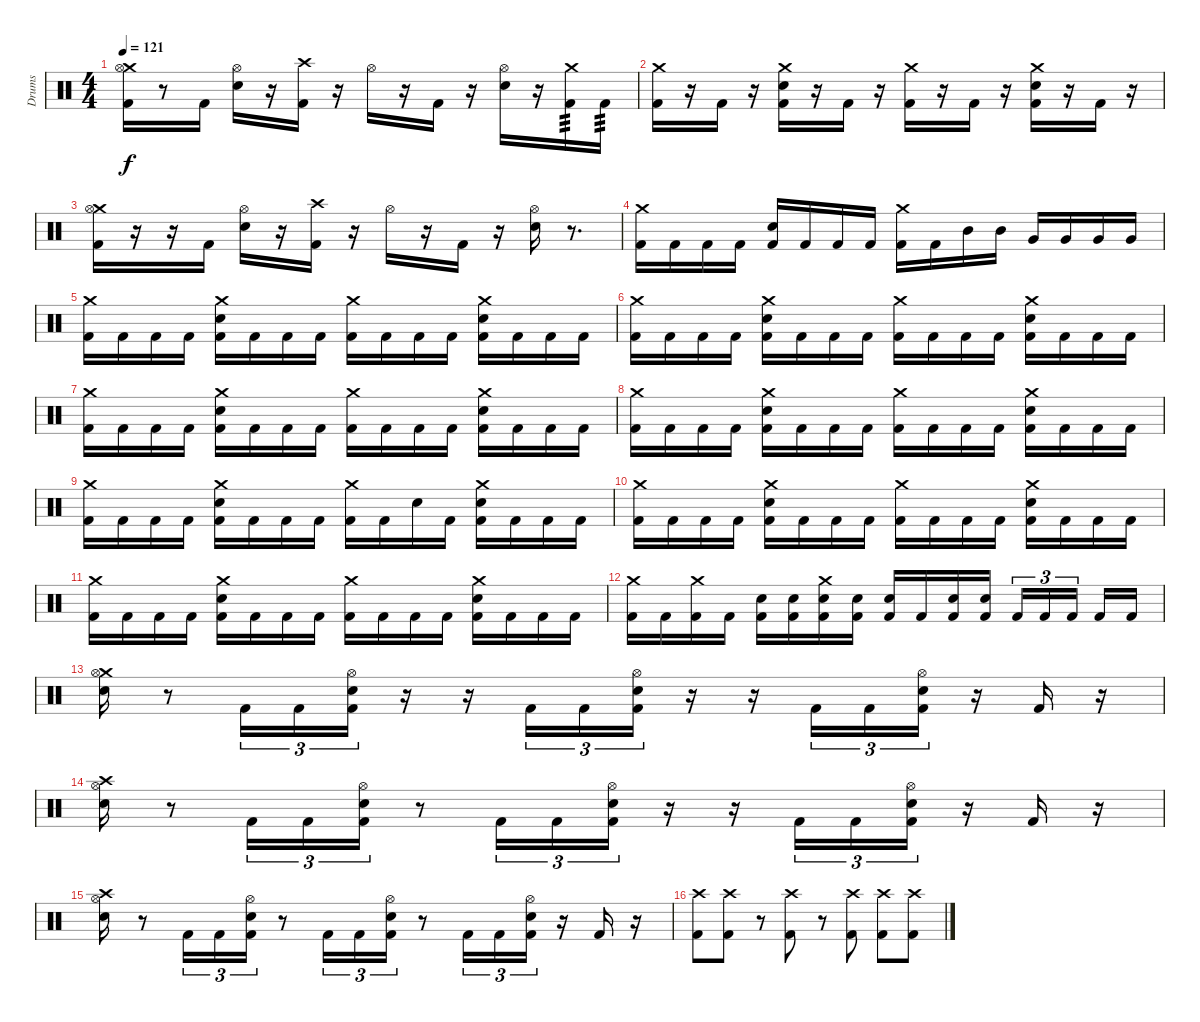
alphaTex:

\track ("Drums" "Drums") {instrument percussion}
\staff {score}
\articulation defaults
\ts (4 4)
\tempo 121
\clef neutral
\ks c
("Crash medium (hit)" "Hi-Hat (open)" "Kick (hit) 2").16{dy f} r.8 "Kick (hit) 2".16 ("Hi-Hat (open)" "Electric Snare (hit)").16 r.16 ("Crash high (hit)" "Kick (hit) 2").16 r.16 "Hi-Hat (open)".16 r.16 "Kick (hit) 2".16 r.16 ("Hi-Hat (open)" "Electric Snare (hit)").16 r.16 ("Crash medium (hit)" "Kick (hit) 2").16{tp 3} "Kick (hit) 2".16{tp 3} |
("Crash medium (hit)" "Kick (hit) 2").16 r.16 "Kick (hit) 2".16 r.16 ("Crash medium (hit)" "Electric Snare (hit)" "Kick (hit) 2").16 r.16 "Kick (hit) 2".16 r.16 ("Crash medium (hit)" "Kick (hit) 2").16 r.16 "Kick (hit) 2".16 r.16 ("Crash medium (hit)" "Electric Snare (hit)" "Kick (hit) 2").16 r.16 "Kick (hit) 2".16 r.16 |
("Crash medium (hit)" "Hi-Hat (open)" "Kick (hit) 2").16 r.16 r.16 "Kick (hit) 2".16 ("Hi-Hat (open)" "Electric Snare (hit)").16 r.16 ("Crash high (hit)" "Kick (hit) 2").16 r.16 "Hi-Hat (open)".16 r.16 "Kick (hit) 2".16 r.16 ("Hi-Hat (open)" "Electric Snare (hit)").16 r.8{d} |
("Crash medium (hit)" "Kick (hit) 2").16 "Kick (hit) 2".16 "Kick (hit) 2".16 "Kick (hit) 2".16 ("Electric Snare (hit)" "Kick (hit) 2").16 "Kick (hit) 2".16 "Kick (hit) 2".16 "Kick (hit) 2".16 ("Crash medium (hit)" "Kick (hit) 2").16 "Kick (hit) 2".16 "Mid Tom (hit)".16 "Mid Tom (hit)".16 "Very Low Tom (hit)".16 "Very Low Tom (hit)".16 "Very Low Tom (hit)".16 "Very Low Tom (hit)".16 |
("Crash medium (hit)" "Kick (hit) 2").16 "Kick (hit) 2".16 "Kick (hit) 2".16 "Kick (hit) 2".16 ("Crash medium (hit)" "Electric Snare (hit)" "Kick (hit) 2").16 "Kick (hit) 2".16 "Kick (hit) 2".16 "Kick (hit) 2".16 ("Crash medium (hit)" "Kick (hit) 2").16 "Kick (hit) 2".16 "Kick (hit) 2".16 "Kick (hit) 2".16 ("Crash medium (hit)" "Electric Snare (hit)" "Kick (hit) 2").16 "Kick (hit) 2".16 "Kick (hit) 2".16 "Kick (hit) 2".16 |
("Crash medium (hit)" "Kick (hit) 2").16 "Kick (hit) 2".16 "Kick (hit) 2".16 "Kick (hit) 2".16 ("Crash medium (hit)" "Electric Snare (hit)" "Kick (hit) 2").16 "Kick (hit) 2".16 "Kick (hit) 2".16 "Kick (hit) 2".16 ("Crash medium (hit)" "Kick (hit) 2").16 "Kick (hit) 2".16 "Kick (hit) 2".16 "Kick (hit) 2".16 ("Crash medium (hit)" "Electric Snare (hit)" "Kick (hit) 2").16 "Kick (hit) 2".16 "Kick (hit) 2".16 "Kick (hit) 2".16 |
("Crash medium (hit)" "Kick (hit) 2").16 "Kick (hit) 2".16 "Kick (hit) 2".16 "Kick (hit) 2".16 ("Crash medium (hit)" "Electric Snare (hit)" "Kick (hit) 2").16 "Kick (hit) 2".16 "Kick (hit) 2".16 "Kick (hit) 2".16 ("Crash medium (hit)" "Kick (hit) 2").16 "Kick (hit) 2".16 "Kick (hit) 2".16 "Kick (hit) 2".16 ("Crash medium (hit)" "Electric Snare (hit)" "Kick (hit) 2").16 "Kick (hit) 2".16 "Kick (hit) 2".16 "Kick (hit) 2".16 |
("Crash medium (hit)" "Kick (hit) 2").16 "Kick (hit) 2".16 "Kick (hit) 2".16 "Kick (hit) 2".16 ("Crash medium (hit)" "Electric Snare (hit)" "Kick (hit) 2").16 "Kick (hit) 2".16 "Kick (hit) 2".16 "Kick (hit) 2".16 ("Crash medium (hit)" "Kick (hit) 2").16 "Kick (hit) 2".16 "Kick (hit) 2".16 "Kick (hit) 2".16 ("Crash medium (hit)" "Electric Snare (hit)" "Kick (hit) 2").16 "Kick (hit) 2".16 "Kick (hit) 2".16 "Kick (hit) 2".16 |
("Crash medium (hit)" "Kick (hit) 2").16 "Kick (hit) 2".16 "Kick (hit) 2".16 "Kick (hit) 2".16 ("Crash medium (hit)" "Electric Snare (hit)" "Kick (hit) 2").16 "Kick (hit) 2".16 "Kick (hit) 2".16 "Kick (hit) 2".16 ("Crash medium (hit)" "Kick (hit) 2").16 "Kick (hit) 2".16 "Snare (hit)".16 "Kick (hit) 2".16 ("Crash medium (hit)" "Electric Snare (hit)" "Kick (hit) 2").16 "Kick (hit) 2".16 "Kick (hit) 2".16 "Kick (hit) 2".16 |
("Crash medium (hit)" "Kick (hit) 2").16 "Kick (hit) 2".16 "Kick (hit) 2".16 "Kick (hit) 2".16 ("Crash medium (hit)" "Electric Snare (hit)" "Kick (hit) 2").16 "Kick (hit) 2".16 "Kick (hit) 2".16 "Kick (hit) 2".16 ("Crash medium (hit)" "Kick (hit) 2").16 "Kick (hit) 2".16 "Kick (hit) 2".16 "Kick (hit) 2".16 ("Crash medium (hit)" "Electric Snare (hit)" "Kick (hit) 2").16 "Kick (hit) 2".16 "Kick (hit) 2".16 "Kick (hit) 2".16 |
("Crash medium (hit)" "Kick (hit) 2").16 "Kick (hit) 2".16 "Kick (hit) 2".16 "Kick (hit) 2".16 ("Crash medium (hit)" "Electric Snare (hit)" "Kick (hit) 2").16 "Kick (hit) 2".16 "Kick (hit) 2".16 "Kick (hit) 2".16 ("Crash medium (hit)" "Kick (hit) 2").16 "Kick (hit) 2".16 "Kick (hit) 2".16 "Kick (hit) 2".16 ("Crash medium (hit)" "Electric Snare (hit)" "Kick (hit) 2").16 "Kick (hit) 2".16 "Kick (hit) 2".16 "Kick (hit) 2".16 |
("Crash medium (hit)" "Kick (hit) 2").16 "Kick (hit) 2".16 ("Crash medium (hit)" "Kick (hit) 2").16 "Kick (hit) 2".16 ("Electric Snare (hit)" "Kick (hit) 2").16 ("Electric Snare (hit)" "Kick (hit) 2").16 ("Crash medium (hit)" "Electric Snare (hit)" "Kick (hit) 2").16 ("Electric Snare (hit)" "Kick (hit) 2").16 ("Electric Snare (hit)" "Kick (hit) 2").16 "Kick (hit) 2".16 ("Electric Snare (hit)" "Kick (hit) 2").16 ("Electric Snare (hit)" "Kick (hit) 2").16 "Kick (hit) 2".16{tu (3 2)} "Kick (hit) 2".16{tu (3 2)} "Kick (hit) 2".16{tu (3 2) beam splitsecondary} "Kick (hit) 2".16 "Kick (hit) 2".16 |
("Crash medium (hit)" "Hi-Hat (open)" "Electric Snare (hit)").16 r.8 "Kick (hit) 2".16{tu (3 2)} "Kick (hit) 2".16{tu (3 2)} ("Hi-Hat (open)" "Electric Snare (hit)" "Kick (hit) 2").16{tu (3 2)} r.16 r.16 "Kick (hit) 2".16{tu (3 2)} "Kick (hit) 2".16{tu (3 2)} ("Hi-Hat (open)" "Electric Snare (hit)" "Kick (hit) 2").16{tu (3 2)} r.16 r.16 "Kick (hit) 2".16{tu (3 2)} "Kick (hit) 2".16{tu (3 2)} ("Hi-Hat (open)" "Electric Snare (hit)" "Kick (hit) 2").16{tu (3 2)} r.16 "Kick (hit) 2".16 r.16 |
("Crash high (hit)" "Hi-Hat (open)" "Electric Snare (hit)").16 r.8 "Kick (hit) 2".16{tu (3 2)} "Kick (hit) 2".16{tu (3 2)} ("Hi-Hat (open)" "Electric Snare (hit)" "Kick (hit) 2").16{tu (3 2)} r.8 "Kick (hit) 2".16{tu (3 2)} "Kick (hit) 2".16{tu (3 2)} ("Hi-Hat (open)" "Electric Snare (hit)" "Kick (hit) 2").16{tu (3 2)} r.16 r.16 "Kick (hit) 2".16{tu (3 2)} "Kick (hit) 2".16{tu (3 2)} ("Hi-Hat (open)" "Electric Snare (hit)" "Kick (hit) 2").16{tu (3 2)} r.16 "Kick (hit) 2".16 r.16 |
("Crash high (hit)" "Hi-Hat (open)" "Electric Snare (hit)").16 r.8 "Kick (hit) 2".16{tu (3 2)} "Kick (hit) 2".16{tu (3 2)} ("Hi-Hat (open)" "Electric Snare (hit)" "Kick (hit) 2").16{tu (3 2)} r.8 "Kick (hit) 2".16{tu (3 2)} "Kick (hit) 2".16{tu (3 2)} ("Hi-Hat (open)" "Electric Snare (hit)" "Kick (hit) 2").16{tu (3 2)} r.8 "Kick (hit) 2".16{tu (3 2)} "Kick (hit) 2".16{tu (3 2)} ("Hi-Hat (open)" "Electric Snare (hit)" "Kick (hit) 2").16{tu (3 2)} r.16 "Kick (hit) 2".16 r.16 |
("Crash high (hit)" "Kick (hit) 2").8 ("Crash high (hit)" "Kick (hit) 2").8 r.8 ("Crash high (hit)" "Kick (hit) 2").8 r.8 ("Crash high (hit)" "Kick (hit) 2").8 ("Crash high (hit)" "Kick (hit) 2").8 ("Crash high (hit)" "Kick (hit) 2").8
